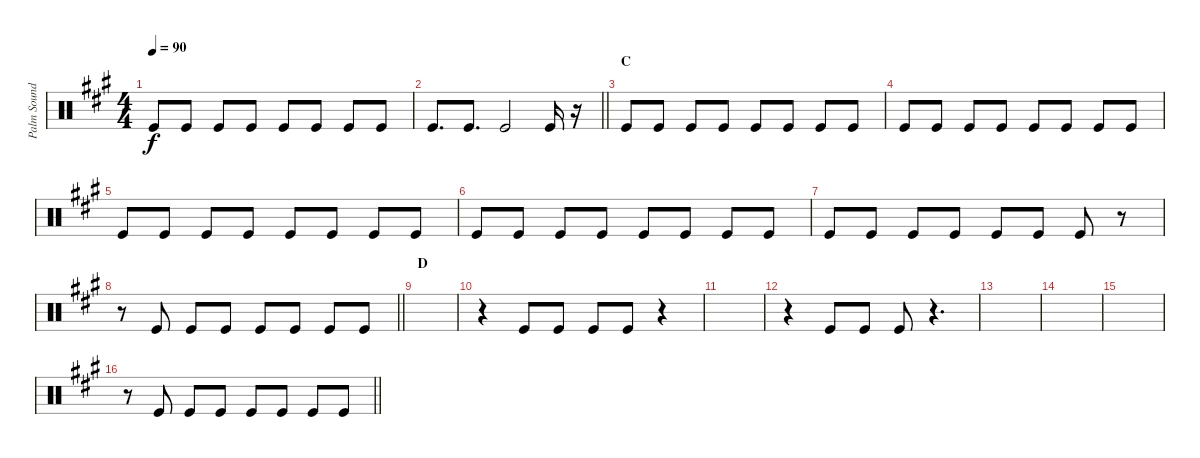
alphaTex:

\track ("Palm Sound" "Palm Sound") {instrument percussion}
\staff {score}
\articulation defaults
\ts (4 4)
\tempo 90
\clef neutral
\ks a "Kick (hit)".8{dy f} "Kick (hit)".8 "Kick (hit)".8 "Kick (hit)".8 "Kick (hit)".8 "Kick (hit)".8 "Kick (hit)".8 "Kick (hit)".8
|
\barLineRight lightlight "Kick (hit)".8{d} "Kick (hit)".8{d} "Kick (hit)".2 "Kick (hit)".16
r.16 |
\section ("" "C")
"Kick (hit)".8 "Kick (hit)".8 "Kick (hit)".8 "Kick (hit)".8 "Kick (hit)".8 "Kick (hit)".8 "Kick (hit)".8 "Kick (hit)".8 |
"Kick (hit)".8 "Kick (hit)".8 "Kick (hit)".8 "Kick (hit)".8 "Kick (hit)".8 "Kick (hit)".8 "Kick (hit)".8 "Kick (hit)".8 |
"Kick (hit)".8 "Kick (hit)".8 "Kick (hit)".8 "Kick (hit)".8 "Kick (hit)".8 "Kick (hit)".8 "Kick (hit)".8 "Kick (hit)".8 |
"Kick (hit)".8 "Kick (hit)".8 "Kick (hit)".8 "Kick (hit)".8 "Kick (hit)".8 "Kick (hit)".8 "Kick (hit)".8 "Kick (hit)".8 |
"Kick (hit)".8 "Kick (hit)".8 "Kick (hit)".8 "Kick (hit)".8 "Kick (hit)".8 "Kick (hit)".8 "Kick (hit)".8 r.8 |
\barLineRight lightlight
r.8 "Kick (hit)".8 "Kick (hit)".8 "Kick (hit)".8 "Kick (hit)".8 "Kick (hit)".8 "Kick (hit)".8 "Kick (hit)".8 |
\section ("" "D")
|
r.4 "Kick (hit)".8 "Kick (hit)".8 "Kick (hit)".8 "Kick (hit)".8 r.4 |
|
r.4 "Kick (hit)".8 "Kick (hit)".8 "Kick (hit)".8 r.4{d} |
|
|
|
\barLineRight lightlight
r.8 "Kick (hit)".8 "Kick (hit)".8 "Kick (hit)".8 "Kick (hit)".8 "Kick (hit)".8 "Kick (hit)".8 "Kick (hit)".8
